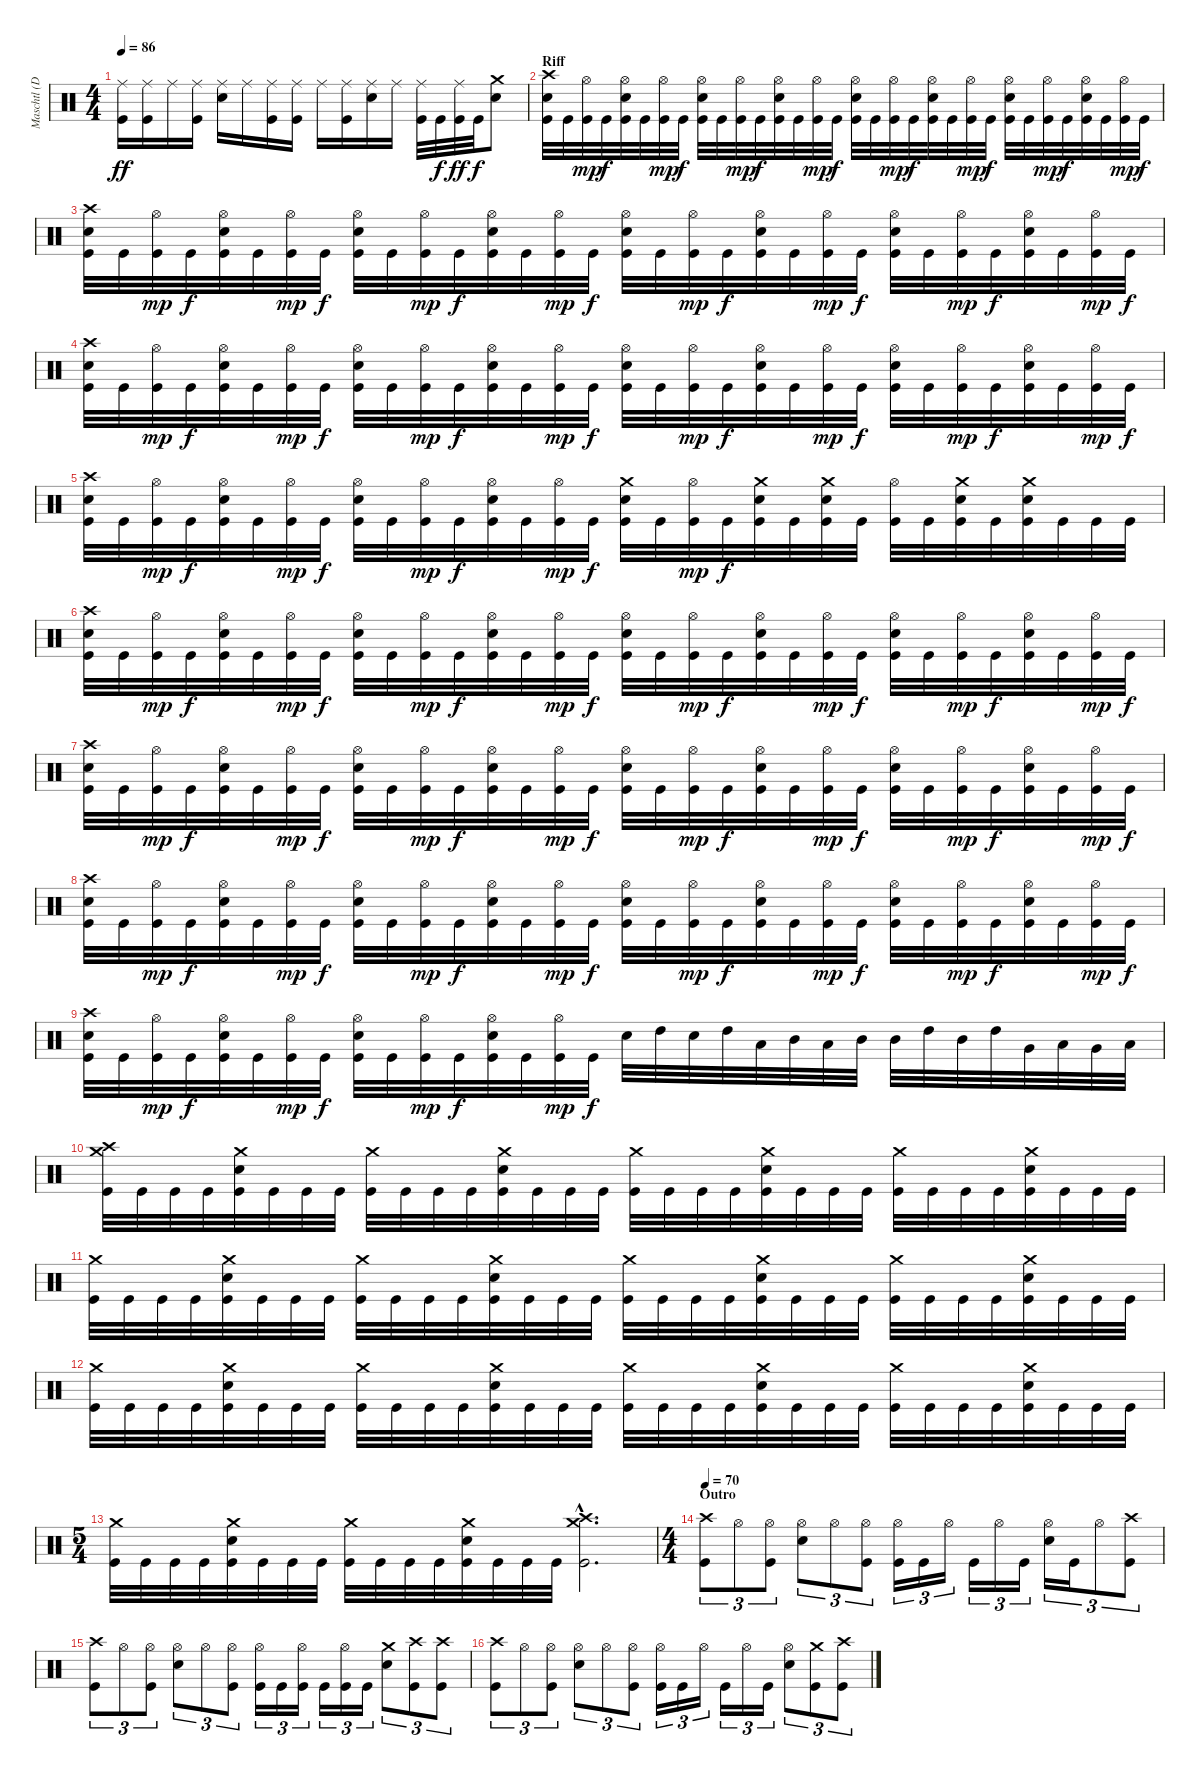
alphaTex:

\track ("Maschtl (Drums)" "Maschtl (D") {instrument percussion}
\staff {score}
\articulation defaults
\ts (4 4)
\tempo 86
\clef neutral
\ks c
("Ride (middle)" "Kick (hit)").16{dy ff} ("Ride (middle)" "Kick (hit)").16 "Ride (middle)".16 ("Ride (middle)" "Kick (hit)").16 ("Ride (middle)" "Electric Snare (hit)").16 "Ride (middle)".16 ("Ride (middle)" "Kick (hit)").16 ("Ride (middle)" "Kick (hit)").16 "Ride (middle)".16 ("Ride (middle)" "Kick (hit)").16 ("Ride (middle)" "Electric Snare (hit)").16 "Ride (middle)".16 ("Ride (middle)" "Kick (hit)").32 "Kick (hit)".32{dy f} ("Ride (middle)" "Kick (hit)").32{dy ff} "Kick (hit)".32{dy f} ("Crash medium (hit)" "Electric Snare (hit)").8 |
\section ("" "Riff")
("Crash high (hit)" "Electric Snare (hit)" "Kick (hit)").32 "Kick (hit)".32 ("Hi-Hat (open)" "Kick (hit)").32{dy mp} "Kick (hit)".32{dy f} ("Hi-Hat (open)" "Electric Snare (hit)" "Kick (hit)").32 "Kick (hit)".32 ("Hi-Hat (open)" "Kick (hit)").32{dy mp} "Kick (hit)".32{dy f} ("Hi-Hat (open)" "Electric Snare (hit)" "Kick (hit)").32 "Kick (hit)".32 ("Hi-Hat (open)" "Kick (hit)").32{dy mp} "Kick (hit)".32{dy f} ("Hi-Hat (open)" "Electric Snare (hit)" "Kick (hit)").32 "Kick (hit)".32 ("Hi-Hat (open)" "Kick (hit)").32{dy mp} "Kick (hit)".32{dy f} ("Hi-Hat (open)" "Electric Snare (hit)" "Kick (hit)").32 "Kick (hit)".32 ("Hi-Hat (open)" "Kick (hit)").32{dy mp} "Kick (hit)".32{dy f} ("Hi-Hat (open)" "Electric Snare (hit)" "Kick (hit)").32 "Kick (hit)".32 ("Hi-Hat (open)" "Kick (hit)").32{dy mp} "Kick (hit)".32{dy f} ("Hi-Hat (open)" "Electric Snare (hit)" "Kick (hit)").32 "Kick (hit)".32 ("Hi-Hat (open)" "Kick (hit)").32{dy mp} "Kick (hit)".32{dy f} ("Hi-Hat (open)" "Electric Snare (hit)" "Kick (hit)").32 "Kick (hit)".32 ("Hi-Hat (open)" "Kick (hit)").32{dy mp} "Kick (hit)".32{dy f} |
("Crash high (hit)" "Electric Snare (hit)" "Kick (hit)").32 "Kick (hit)".32 ("Hi-Hat (open)" "Kick (hit)").32{dy mp} "Kick (hit)".32{dy f} ("Hi-Hat (open)" "Electric Snare (hit)" "Kick (hit)").32 "Kick (hit)".32 ("Hi-Hat (open)" "Kick (hit)").32{dy mp} "Kick (hit)".32{dy f} ("Hi-Hat (open)" "Electric Snare (hit)" "Kick (hit)").32 "Kick (hit)".32 ("Hi-Hat (open)" "Kick (hit)").32{dy mp} "Kick (hit)".32{dy f} ("Hi-Hat (open)" "Electric Snare (hit)" "Kick (hit)").32 "Kick (hit)".32 ("Hi-Hat (open)" "Kick (hit)").32{dy mp} "Kick (hit)".32{dy f} ("Hi-Hat (open)" "Electric Snare (hit)" "Kick (hit)").32 "Kick (hit)".32 ("Hi-Hat (open)" "Kick (hit)").32{dy mp} "Kick (hit)".32{dy f} ("Hi-Hat (open)" "Electric Snare (hit)" "Kick (hit)").32 "Kick (hit)".32 ("Hi-Hat (open)" "Kick (hit)").32{dy mp} "Kick (hit)".32{dy f} ("Hi-Hat (open)" "Electric Snare (hit)" "Kick (hit)").32 "Kick (hit)".32 ("Hi-Hat (open)" "Kick (hit)").32{dy mp} "Kick (hit)".32{dy f} ("Hi-Hat (open)" "Electric Snare (hit)" "Kick (hit)").32 "Kick (hit)".32 ("Hi-Hat (open)" "Kick (hit)").32{dy mp} "Kick (hit)".32{dy f} |
("Crash high (hit)" "Electric Snare (hit)" "Kick (hit)").32 "Kick (hit)".32 ("Hi-Hat (open)" "Kick (hit)").32{dy mp} "Kick (hit)".32{dy f} ("Hi-Hat (open)" "Electric Snare (hit)" "Kick (hit)").32 "Kick (hit)".32 ("Hi-Hat (open)" "Kick (hit)").32{dy mp} "Kick (hit)".32{dy f} ("Hi-Hat (open)" "Electric Snare (hit)" "Kick (hit)").32 "Kick (hit)".32 ("Hi-Hat (open)" "Kick (hit)").32{dy mp} "Kick (hit)".32{dy f} ("Hi-Hat (open)" "Electric Snare (hit)" "Kick (hit)").32 "Kick (hit)".32 ("Hi-Hat (open)" "Kick (hit)").32{dy mp} "Kick (hit)".32{dy f} ("Hi-Hat (open)" "Electric Snare (hit)" "Kick (hit)").32 "Kick (hit)".32 ("Hi-Hat (open)" "Kick (hit)").32{dy mp} "Kick (hit)".32{dy f} ("Hi-Hat (open)" "Electric Snare (hit)" "Kick (hit)").32 "Kick (hit)".32 ("Hi-Hat (open)" "Kick (hit)").32{dy mp} "Kick (hit)".32{dy f} ("Hi-Hat (open)" "Electric Snare (hit)" "Kick (hit)").32 "Kick (hit)".32 ("Hi-Hat (open)" "Kick (hit)").32{dy mp} "Kick (hit)".32{dy f} ("Hi-Hat (open)" "Electric Snare (hit)" "Kick (hit)").32 "Kick (hit)".32 ("Hi-Hat (open)" "Kick (hit)").32{dy mp} "Kick (hit)".32{dy f} |
("Crash high (hit)" "Electric Snare (hit)" "Kick (hit)").32 "Kick (hit)".32 ("Hi-Hat (open)" "Kick (hit)").32{dy mp} "Kick (hit)".32{dy f} ("Hi-Hat (open)" "Electric Snare (hit)" "Kick (hit)").32 "Kick (hit)".32 ("Hi-Hat (open)" "Kick (hit)").32{dy mp} "Kick (hit)".32{dy f} ("Hi-Hat (open)" "Electric Snare (hit)" "Kick (hit)").32 "Kick (hit)".32 ("Hi-Hat (open)" "Kick (hit)").32{dy mp} "Kick (hit)".32{dy f} ("Hi-Hat (open)" "Electric Snare (hit)" "Kick (hit)").32 "Kick (hit)".32 ("Hi-Hat (open)" "Kick (hit)").32{dy mp} "Kick (hit)".32{dy f} ("Crash medium (hit)" "Electric Snare (hit)" "Kick (hit)").32 "Kick (hit)".32 ("Hi-Hat (open)" "Kick (hit)").32{dy mp} "Kick (hit)".32{dy f} ("Crash medium (hit)" "Electric Snare (hit)" "Kick (hit)").32 "Kick (hit)".32 ("Crash medium (hit)" "Electric Snare (hit)" "Kick (hit)").32 "Kick (hit)".32 ("Hi-Hat (open)" "Kick (hit)").32 "Kick (hit)".32 ("Crash medium (hit)" "Electric Snare (hit)" "Kick (hit)").32 "Kick (hit)".32 ("Crash medium (hit)" "Electric Snare (hit)" "Kick (hit)").32 "Kick (hit)".32 "Kick (hit)".32 "Kick (hit)".32 |
("Crash high (hit)" "Electric Snare (hit)" "Kick (hit)").32 "Kick (hit)".32 ("Hi-Hat (open)" "Kick (hit)").32{dy mp} "Kick (hit)".32{dy f} ("Hi-Hat (open)" "Electric Snare (hit)" "Kick (hit)").32 "Kick (hit)".32 ("Hi-Hat (open)" "Kick (hit)").32{dy mp} "Kick (hit)".32{dy f} ("Hi-Hat (open)" "Electric Snare (hit)" "Kick (hit)").32 "Kick (hit)".32 ("Hi-Hat (open)" "Kick (hit)").32{dy mp} "Kick (hit)".32{dy f} ("Hi-Hat (open)" "Electric Snare (hit)" "Kick (hit)").32 "Kick (hit)".32 ("Hi-Hat (open)" "Kick (hit)").32{dy mp} "Kick (hit)".32{dy f} ("Hi-Hat (open)" "Electric Snare (hit)" "Kick (hit)").32 "Kick (hit)".32 ("Hi-Hat (open)" "Kick (hit)").32{dy mp} "Kick (hit)".32{dy f} ("Hi-Hat (open)" "Electric Snare (hit)" "Kick (hit)").32 "Kick (hit)".32 ("Hi-Hat (open)" "Kick (hit)").32{dy mp} "Kick (hit)".32{dy f} ("Hi-Hat (open)" "Electric Snare (hit)" "Kick (hit)").32 "Kick (hit)".32 ("Hi-Hat (open)" "Kick (hit)").32{dy mp} "Kick (hit)".32{dy f} ("Hi-Hat (open)" "Electric Snare (hit)" "Kick (hit)").32 "Kick (hit)".32 ("Hi-Hat (open)" "Kick (hit)").32{dy mp} "Kick (hit)".32{dy f} |
("Crash high (hit)" "Electric Snare (hit)" "Kick (hit)").32 "Kick (hit)".32 ("Hi-Hat (open)" "Kick (hit)").32{dy mp} "Kick (hit)".32{dy f} ("Hi-Hat (open)" "Electric Snare (hit)" "Kick (hit)").32 "Kick (hit)".32 ("Hi-Hat (open)" "Kick (hit)").32{dy mp} "Kick (hit)".32{dy f} ("Hi-Hat (open)" "Electric Snare (hit)" "Kick (hit)").32 "Kick (hit)".32 ("Hi-Hat (open)" "Kick (hit)").32{dy mp} "Kick (hit)".32{dy f} ("Hi-Hat (open)" "Electric Snare (hit)" "Kick (hit)").32 "Kick (hit)".32 ("Hi-Hat (open)" "Kick (hit)").32{dy mp} "Kick (hit)".32{dy f} ("Hi-Hat (open)" "Electric Snare (hit)" "Kick (hit)").32 "Kick (hit)".32 ("Hi-Hat (open)" "Kick (hit)").32{dy mp} "Kick (hit)".32{dy f} ("Hi-Hat (open)" "Electric Snare (hit)" "Kick (hit)").32 "Kick (hit)".32 ("Hi-Hat (open)" "Kick (hit)").32{dy mp} "Kick (hit)".32{dy f} ("Hi-Hat (open)" "Electric Snare (hit)" "Kick (hit)").32 "Kick (hit)".32 ("Hi-Hat (open)" "Kick (hit)").32{dy mp} "Kick (hit)".32{dy f} ("Hi-Hat (open)" "Electric Snare (hit)" "Kick (hit)").32 "Kick (hit)".32 ("Hi-Hat (open)" "Kick (hit)").32{dy mp} "Kick (hit)".32{dy f} |
("Crash high (hit)" "Electric Snare (hit)" "Kick (hit)").32 "Kick (hit)".32 ("Hi-Hat (open)" "Kick (hit)").32{dy mp} "Kick (hit)".32{dy f} ("Hi-Hat (open)" "Electric Snare (hit)" "Kick (hit)").32 "Kick (hit)".32 ("Hi-Hat (open)" "Kick (hit)").32{dy mp} "Kick (hit)".32{dy f} ("Hi-Hat (open)" "Electric Snare (hit)" "Kick (hit)").32 "Kick (hit)".32 ("Hi-Hat (open)" "Kick (hit)").32{dy mp} "Kick (hit)".32{dy f} ("Hi-Hat (open)" "Electric Snare (hit)" "Kick (hit)").32 "Kick (hit)".32 ("Hi-Hat (open)" "Kick (hit)").32{dy mp} "Kick (hit)".32{dy f} ("Hi-Hat (open)" "Electric Snare (hit)" "Kick (hit)").32 "Kick (hit)".32 ("Hi-Hat (open)" "Kick (hit)").32{dy mp} "Kick (hit)".32{dy f} ("Hi-Hat (open)" "Electric Snare (hit)" "Kick (hit)").32 "Kick (hit)".32 ("Hi-Hat (open)" "Kick (hit)").32{dy mp} "Kick (hit)".32{dy f} ("Hi-Hat (open)" "Electric Snare (hit)" "Kick (hit)").32 "Kick (hit)".32 ("Hi-Hat (open)" "Kick (hit)").32{dy mp} "Kick (hit)".32{dy f} ("Hi-Hat (open)" "Electric Snare (hit)" "Kick (hit)").32 "Kick (hit)".32 ("Hi-Hat (open)" "Kick (hit)").32{dy mp} "Kick (hit)".32{dy f} |
("Crash high (hit)" "Electric Snare (hit)" "Kick (hit)").32 "Kick (hit)".32 ("Hi-Hat (open)" "Kick (hit)").32{dy mp} "Kick (hit)".32{dy f} ("Hi-Hat (open)" "Electric Snare (hit)" "Kick (hit)").32 "Kick (hit)".32 ("Hi-Hat (open)" "Kick (hit)").32{dy mp} "Kick (hit)".32{dy f} ("Hi-Hat (open)" "Electric Snare (hit)" "Kick (hit)").32 "Kick (hit)".32 ("Hi-Hat (open)" "Kick (hit)").32{dy mp} "Kick (hit)".32{dy f} ("Hi-Hat (open)" "Electric Snare (hit)" "Kick (hit)").32 "Kick (hit)".32 ("Hi-Hat (open)" "Kick (hit)").32{dy mp} "Kick (hit)".32{dy f} "Electric Snare (hit)".32 "High Tom (hit)".32 "Electric Snare (hit)".32 "High Tom (hit)".32 "Low Tom (hit)".32 "Mid Tom (hit)".32 "Low Tom (hit)".32 "Mid Tom (hit)".32 "Mid Tom (hit)".32 "High Tom (hit)".32 "Mid Tom (hit)".32 "High Tom (hit)".32 "Very Low Tom (hit)".32 "Low Tom (hit)".32 "Very Low Tom (hit)".32 "Low Tom (hit)".32 |
("Crash medium (hit)" "Crash high (hit)" "Kick (hit)").32 "Kick (hit)".32 "Kick (hit)".32 "Kick (hit)".32 ("Crash medium (hit)" "Electric Snare (hit)" "Kick (hit)").32 "Kick (hit)".32 "Kick (hit)".32 "Kick (hit)".32 ("Crash medium (hit)" "Kick (hit)").32 "Kick (hit)".32 "Kick (hit)".32 "Kick (hit)".32 ("Crash medium (hit)" "Electric Snare (hit)" "Kick (hit)").32 "Kick (hit)".32 "Kick (hit)".32 "Kick (hit)".32 ("Crash medium (hit)" "Kick (hit)").32 "Kick (hit)".32 "Kick (hit)".32 "Kick (hit)".32 ("Crash medium (hit)" "Electric Snare (hit)" "Kick (hit)").32 "Kick (hit)".32 "Kick (hit)".32 "Kick (hit)".32 ("Crash medium (hit)" "Kick (hit)").32 "Kick (hit)".32 "Kick (hit)".32 "Kick (hit)".32 ("Crash medium (hit)" "Electric Snare (hit)" "Kick (hit)").32 "Kick (hit)".32 "Kick (hit)".32 "Kick (hit)".32 |
("Crash medium (hit)" "Kick (hit)").32 "Kick (hit)".32 "Kick (hit)".32 "Kick (hit)".32 ("Crash medium (hit)" "Electric Snare (hit)" "Kick (hit)").32 "Kick (hit)".32 "Kick (hit)".32 "Kick (hit)".32 ("Crash medium (hit)" "Kick (hit)").32 "Kick (hit)".32 "Kick (hit)".32 "Kick (hit)".32 ("Crash medium (hit)" "Electric Snare (hit)" "Kick (hit)").32 "Kick (hit)".32 "Kick (hit)".32 "Kick (hit)".32 ("Crash medium (hit)" "Kick (hit)").32 "Kick (hit)".32 "Kick (hit)".32 "Kick (hit)".32 ("Crash medium (hit)" "Electric Snare (hit)" "Kick (hit)").32 "Kick (hit)".32 "Kick (hit)".32 "Kick (hit)".32 ("Crash medium (hit)" "Kick (hit)").32 "Kick (hit)".32 "Kick (hit)".32 "Kick (hit)".32 ("Crash medium (hit)" "Electric Snare (hit)" "Kick (hit)").32 "Kick (hit)".32 "Kick (hit)".32 "Kick (hit)".32 |
("Crash medium (hit)" "Kick (hit)").32 "Kick (hit)".32 "Kick (hit)".32 "Kick (hit)".32 ("Crash medium (hit)" "Electric Snare (hit)" "Kick (hit)").32 "Kick (hit)".32 "Kick (hit)".32 "Kick (hit)".32 ("Crash medium (hit)" "Kick (hit)").32 "Kick (hit)".32 "Kick (hit)".32 "Kick (hit)".32 ("Crash medium (hit)" "Electric Snare (hit)" "Kick (hit)").32 "Kick (hit)".32 "Kick (hit)".32 "Kick (hit)".32 ("Crash medium (hit)" "Kick (hit)").32 "Kick (hit)".32 "Kick (hit)".32 "Kick (hit)".32 ("Crash medium (hit)" "Electric Snare (hit)" "Kick (hit)").32 "Kick (hit)".32 "Kick (hit)".32 "Kick (hit)".32 ("Crash medium (hit)" "Kick (hit)").32 "Kick (hit)".32 "Kick (hit)".32 "Kick (hit)".32 ("Crash medium (hit)" "Electric Snare (hit)" "Kick (hit)").32 "Kick (hit)".32 "Kick (hit)".32 "Kick (hit)".32 |
\ts (5 4)
("Crash medium (hit)" "Kick (hit)").32 "Kick (hit)".32 "Kick (hit)".32 "Kick (hit)".32 ("Crash medium (hit)" "Electric Snare (hit)" "Kick (hit)").32 "Kick (hit)".32 "Kick (hit)".32 "Kick (hit)".32 ("Crash medium (hit)" "Kick (hit)").32 "Kick (hit)".32 "Kick (hit)".32 "Kick (hit)".32 ("Crash medium (hit)" "Electric Snare (hit)" "Kick (hit)").32 "Kick (hit)".32 "Kick (hit)".32 "Kick (hit)".32 ("Crash high (hit)"{hac} "Crash medium (hit)"{hac} "Kick (hit)"{hac}).2{d} |
\ts (4 4)
\section ("" "Outro")
\tempo 70
("Crash high (hit)" "Kick (hit)").8{tu (3 2)} "Hi-Hat (open)".8{tu (3 2)} ("Hi-Hat (open)" "Kick (hit)").8{tu (3 2)} ("Hi-Hat (open)" "Electric Snare (hit)").8{tu (3 2)} "Hi-Hat (open)".8{tu (3 2)} ("Hi-Hat (open)" "Kick (hit)").8{tu (3 2)} ("Hi-Hat (open)" "Kick (hit)").16{tu (3 2)} "Kick (hit)".16{tu (3 2)} "Hi-Hat (open)".16{tu (3 2)} "Kick (hit)".16{tu (3 2)} "Hi-Hat (open)".16{tu (3 2)} "Kick (hit)".16{tu (3 2)} ("Hi-Hat (open)" "Electric Snare (hit)").16{tu (3 2)} "Kick (hit)".16{tu (3 2)} "Hi-Hat (open)".8{tu (3 2)} ("Crash high (hit)" "Kick (hit)").8{tu (3 2)} |
("Crash high (hit)" "Kick (hit)").8{tu (3 2)} "Hi-Hat (open)".8{tu (3 2)} ("Hi-Hat (open)" "Kick (hit)").8{tu (3 2)} ("Hi-Hat (open)" "Electric Snare (hit)").8{tu (3 2)} "Hi-Hat (open)".8{tu (3 2)} ("Hi-Hat (open)" "Kick (hit)").8{tu (3 2)} ("Hi-Hat (open)" "Kick (hit)").16{tu (3 2)} "Kick (hit)".16{tu (3 2)} ("Hi-Hat (open)" "Kick (hit)").16{tu (3 2)} "Kick (hit)".16{tu (3 2)} ("Hi-Hat (open)" "Kick (hit)").16{tu (3 2)} "Kick (hit)".16{tu (3 2)} ("Crash medium (hit)" "Electric Snare (hit)").8{tu (3 2)} ("Crash high (hit)" "Kick (hit)").8{tu (3 2)} ("Crash high (hit)" "Kick (hit)").8{tu (3 2)} |
("Crash high (hit)" "Kick (hit)").8{tu (3 2)} "Hi-Hat (open)".8{tu (3 2)} ("Hi-Hat (open)" "Kick (hit)").8{tu (3 2)} ("Hi-Hat (open)" "Electric Snare (hit)").8{tu (3 2)} "Hi-Hat (open)".8{tu (3 2)} ("Hi-Hat (open)" "Kick (hit)").8{tu (3 2)} ("Hi-Hat (open)" "Kick (hit)").16{tu (3 2)} "Kick (hit)".16{tu (3 2)} "Hi-Hat (open)".16{tu (3 2)} "Kick (hit)".16{tu (3 2)} "Hi-Hat (open)".16{tu (3 2)} "Kick (hit)".16{tu (3 2)} ("Hi-Hat (open)" "Electric Snare (hit)").8{tu (3 2)} ("Crash medium (hit)" "Kick (hit)").8{tu (3 2)} ("Crash high (hit)" "Kick (hit)").8{tu (3 2)}
